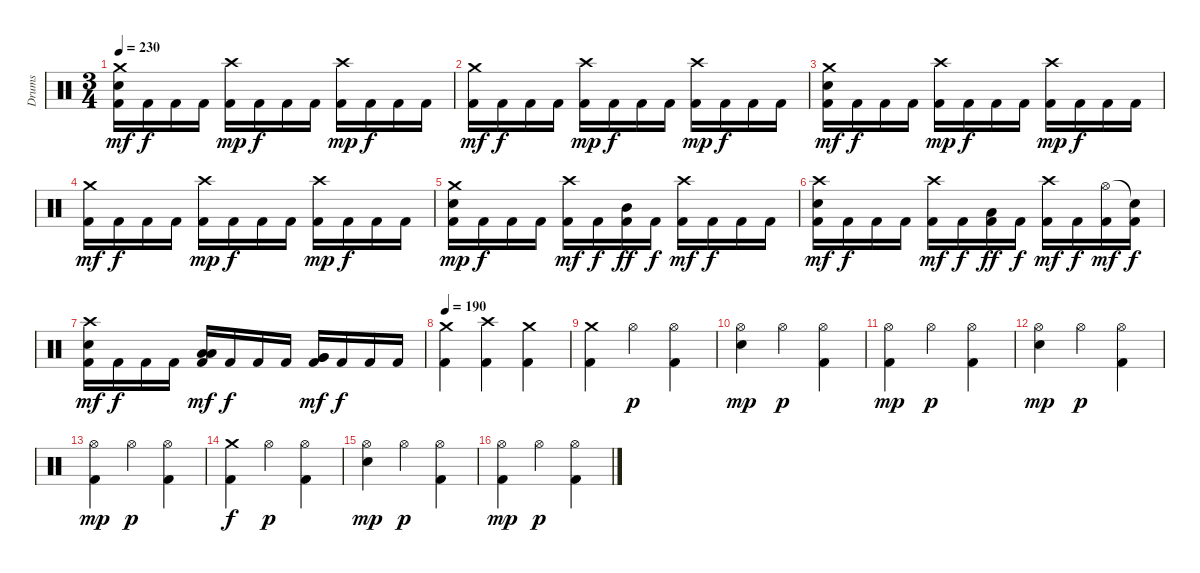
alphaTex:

\track ("Drums" "Drums") {instrument percussion}
\staff {score}
\articulation defaults
\ts (3 4)
\tempo 230
\clef neutral
\ks c
("Crash medium (hit)" "Electric Snare (hit)" "Kick (hit) 2").16{dy mf} "Kick (hit) 2".16{dy f} "Kick (hit) 2".16 "Kick (hit) 2".16 ("Crash high (hit)" "Kick (hit) 2").16{dy mp} "Kick (hit) 2".16{dy f} "Kick (hit) 2".16 "Kick (hit) 2".16 ("Crash high (hit)" "Kick (hit) 2").16{dy mp} "Kick (hit) 2".16{dy f} "Kick (hit) 2".16 "Kick (hit) 2".16 |
("Crash medium (hit)" "Kick (hit) 2").16{dy mf} "Kick (hit) 2".16{dy f} "Kick (hit) 2".16 "Kick (hit) 2".16 ("Crash high (hit)" "Kick (hit) 2").16{dy mp} "Kick (hit) 2".16{dy f} "Kick (hit) 2".16 "Kick (hit) 2".16 ("Crash high (hit)" "Kick (hit) 2").16{dy mp} "Kick (hit) 2".16{dy f} "Kick (hit) 2".16 "Kick (hit) 2".16 |
("Crash medium (hit)" "Electric Snare (hit)" "Kick (hit) 2").16{dy mf} "Kick (hit) 2".16{dy f} "Kick (hit) 2".16 "Kick (hit) 2".16 ("Crash high (hit)" "Kick (hit) 2").16{dy mp} "Kick (hit) 2".16{dy f} "Kick (hit) 2".16 "Kick (hit) 2".16 ("Crash high (hit)" "Kick (hit) 2").16{dy mp} "Kick (hit) 2".16{dy f} "Kick (hit) 2".16 "Kick (hit) 2".16 |
("Crash medium (hit)" "Kick (hit) 2").16{dy mf} "Kick (hit) 2".16{dy f} "Kick (hit) 2".16 "Kick (hit) 2".16 ("Crash high (hit)" "Kick (hit) 2").16{dy mp} "Kick (hit) 2".16{dy f} "Kick (hit) 2".16 "Kick (hit) 2".16 ("Crash high (hit)" "Kick (hit) 2").16{dy mp} "Kick (hit) 2".16{dy f} "Kick (hit) 2".16 "Kick (hit) 2".16 |
("Crash medium (hit)" "Electric Snare (hit)" "Kick (hit) 2").16{dy mp} "Kick (hit) 2".16{dy f} "Kick (hit) 2".16 "Kick (hit) 2".16 ("Crash high (hit)" "Kick (hit) 2").16{dy mf} "Kick (hit) 2".16{dy f} ("Mid Tom (hit)" "Kick (hit) 2").16{dy ff} "Kick (hit) 2".16{dy f} ("Crash high (hit)" "Kick (hit) 2").16{dy mf} "Kick (hit) 2".16{dy f} "Kick (hit) 2".16 "Kick (hit) 2".16 |
("Crash high (hit)" "Electric Snare (hit)" "Kick (hit) 2").16{dy mf} "Kick (hit) 2".16{dy f} "Kick (hit) 2".16 "Kick (hit) 2".16 ("Crash high (hit)" "Kick (hit) 2").16{dy mf} "Kick (hit) 2".16{dy f} ("Low Tom (hit)" "Kick (hit) 2").16{dy ff} "Kick (hit) 2".16{dy f} ("Crash high (hit)" "Kick (hit) 2").16{dy mf} "Kick (hit) 2".16{dy f} ("Hi-Hat (open)" "Kick (hit) 2").16{dy mf} ("Snare (hit)"{t} "Kick (hit) 2").16{dy f} |
("Crash high (hit)" "Electric Snare (hit)" "Kick (hit) 2").16{dy mf} "Kick (hit) 2".16{dy f} "Kick (hit) 2".16 "Kick (hit) 2".16 ("Low Tom (hit)" "Low Tom (hit)" "Kick (hit) 2").16{dy mf} "Kick (hit) 2".16{dy f} "Kick (hit) 2".16 "Kick (hit) 2".16 ("Very Low Tom (hit)" "Very Low Tom (hit)" "Kick (hit) 2").16{dy mf} "Kick (hit) 2".16{dy f} "Kick (hit) 2".16 "Kick (hit) 2".16 |
\tempo 190
("Crash medium (hit)" "Kick (hit) 2").4 ("Crash high (hit)" "Kick (hit) 2").4 ("Crash medium (hit)" "Kick (hit) 2").4 |
("Crash medium (hit)" "Kick (hit) 2").4 "Hi-Hat (open)".4{dy p} ("Hi-Hat (open)" "Kick (hit) 2").4 |
("Hi-Hat (open)" "Electric Snare (hit)").4{dy mp} "Hi-Hat (open)".4{dy p} ("Hi-Hat (open)" "Kick (hit) 2").4 |
("Hi-Hat (open)" "Kick (hit) 2").4{dy mp} "Hi-Hat (open)".4{dy p} ("Hi-Hat (open)" "Kick (hit) 2").4 |
("Hi-Hat (open)" "Electric Snare (hit)").4{dy mp} "Hi-Hat (open)".4{dy p} ("Hi-Hat (open)" "Kick (hit) 2").4 |
("Hi-Hat (open)" "Kick (hit) 2").4{dy mp} "Hi-Hat (open)".4{dy p} ("Hi-Hat (open)" "Kick (hit) 2").4 |
("Crash medium (hit)" "Kick (hit) 2").4{dy f} "Hi-Hat (open)".4{dy p} ("Hi-Hat (open)" "Kick (hit) 2").4 |
("Hi-Hat (open)" "Electric Snare (hit)").4{dy mp} "Hi-Hat (open)".4{dy p} ("Hi-Hat (open)" "Kick (hit) 2").4 |
("Hi-Hat (open)" "Kick (hit) 2").4{dy mp} "Hi-Hat (open)".4{dy p} ("Hi-Hat (open)" "Kick (hit) 2").4
